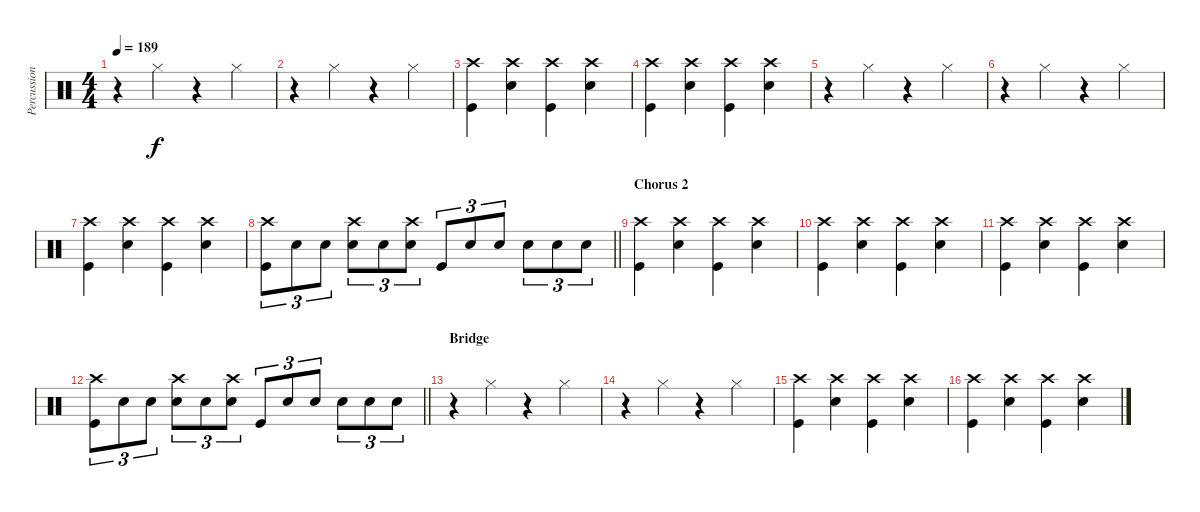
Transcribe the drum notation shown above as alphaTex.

\track ("Percussions" "Percussion") {instrument percussion}
\staff {score}
\articulation defaults
\ts (4 4)
\tempo 189
\clef neutral
\ks c
r.4{dy f} "Hi-Hat (closed)".4 r.4 "Hi-Hat (closed)".4 |
r.4 "Hi-Hat (closed)".4 r.4 "Hi-Hat (closed)".4 |
("Crash high (hit)" "Kick (hit)").4 ("Crash high (hit)" "Snare (hit) 2").4 ("Crash high (hit)" "Kick (hit)").4 ("Crash high (hit)" "Snare (hit) 2").4 |
("Crash high (hit)" "Kick (hit)").4 ("Crash high (hit)" "Snare (hit) 2").4 ("Crash high (hit)" "Kick (hit)").4 ("Crash high (hit)" "Snare (hit) 2").4 |
r.4 "Hi-Hat (closed)".4 r.4 "Hi-Hat (closed)".4 |
r.4 "Hi-Hat (closed)".4 r.4 "Hi-Hat (closed)".4 |
("Crash high (hit)" "Kick (hit)").4 ("Crash high (hit)" "Snare (hit) 2").4 ("Crash high (hit)" "Kick (hit)").4 ("Crash high (hit)" "Snare (hit) 2").4 |
\barLineRight lightlight
("Crash high (hit)" "Kick (hit)").8{tu (3 2)} "Snare (hit) 2".8{tu (3 2)} "Snare (hit) 2".8{tu (3 2)} ("Crash high (hit)" "Snare (hit) 2").8{tu (3 2)} "Snare (hit) 2".8{tu (3 2)} ("Crash high (hit)" "Snare (hit) 2").8{tu (3 2)} "Kick (hit)".8{tu (3 2)} "Snare (hit) 2".8{tu (3 2)} "Snare (hit) 2".8{tu (3 2)} "Snare (hit) 2".8{tu (3 2)} "Snare (hit) 2".8{tu (3 2)} "Snare (hit) 2".8{tu (3 2)} |
\section ("" "Chorus 2")
("Crash high (hit)" "Kick (hit)").4 ("Crash high (hit)" "Snare (hit) 2").4 ("Crash high (hit)" "Kick (hit)").4 ("Crash high (hit)" "Snare (hit) 2").4 |
("Crash high (hit)" "Kick (hit)").4 ("Crash high (hit)" "Snare (hit) 2").4 ("Crash high (hit)" "Kick (hit)").4 ("Crash high (hit)" "Snare (hit) 2").4 |
("Crash high (hit)" "Kick (hit)").4 ("Crash high (hit)" "Snare (hit) 2").4 ("Crash high (hit)" "Kick (hit)").4 ("Crash high (hit)" "Snare (hit) 2").4 |
\barLineRight lightlight
("Crash high (hit)" "Kick (hit)").8{tu (3 2)} "Snare (hit) 2".8{tu (3 2)} "Snare (hit) 2".8{tu (3 2)} ("Crash high (hit)" "Snare (hit) 2").8{tu (3 2)} "Snare (hit) 2".8{tu (3 2)} ("Crash high (hit)" "Snare (hit) 2").8{tu (3 2)} "Kick (hit)".8{tu (3 2)} "Snare (hit) 2".8{tu (3 2)} "Snare (hit) 2".8{tu (3 2)} "Snare (hit) 2".8{tu (3 2)} "Snare (hit) 2".8{tu (3 2)} "Snare (hit) 2".8{tu (3 2)} |
\section ("" "Bridge")
r.4 "Hi-Hat (closed)".4 r.4 "Hi-Hat (closed)".4 |
r.4 "Hi-Hat (closed)".4 r.4 "Hi-Hat (closed)".4 |
("Crash high (hit)" "Kick (hit)").4 ("Crash high (hit)" "Snare (hit) 2").4 ("Crash high (hit)" "Kick (hit)").4 ("Crash high (hit)" "Snare (hit) 2").4 |
("Crash high (hit)" "Kick (hit)").4 ("Crash high (hit)" "Snare (hit) 2").4 ("Crash high (hit)" "Kick (hit)").4 ("Crash high (hit)" "Snare (hit) 2").4
